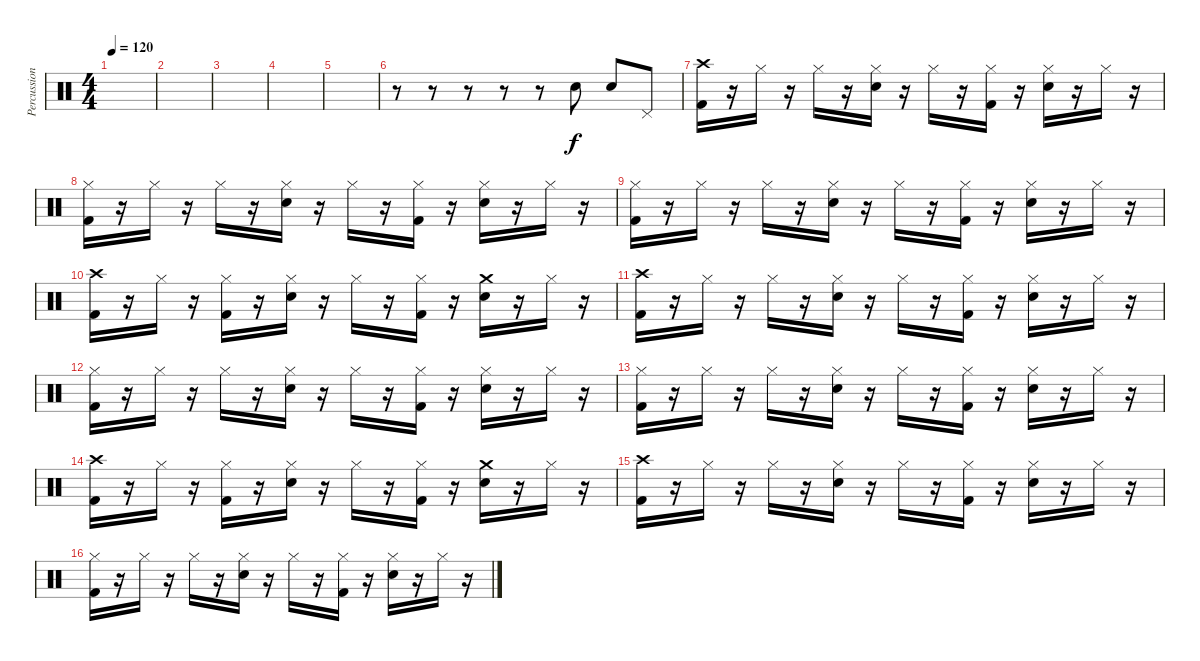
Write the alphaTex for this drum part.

\track ("Percussion" "Percussion") {instrument percussion}
\staff {score}
\articulation defaults
\ts (4 4)
\tempo 120
\clef neutral
\ks c
|
|
|
|
|
r.8 r.8 r.8 r.8 r.8 "Snare (hit) 2".8 "Snare (hit) 2".8 "Pedal Hi-Hat (hit)".8 |
("Crash high (hit)" "Kick (hit) 2").16 r.16 "Hi-Hat (closed)".16 r.16 "Hi-Hat (closed)".16 r.16 ("Hi-Hat (closed)" "Snare (hit) 2").16 r.16 "Hi-Hat (closed)".16 r.16 ("Hi-Hat (closed)" "Kick (hit) 2").16 r.16 ("Hi-Hat (closed)" "Snare (hit) 2").16 r.16 "Hi-Hat (closed)".16 r.16 |
("Hi-Hat (closed)" "Kick (hit) 2").16 r.16 "Hi-Hat (closed)".16 r.16 "Hi-Hat (closed)".16 r.16 ("Hi-Hat (closed)" "Snare (hit) 2").16 r.16 "Hi-Hat (closed)".16 r.16 ("Hi-Hat (closed)" "Kick (hit) 2").16 r.16 ("Hi-Hat (closed)" "Snare (hit) 2").16 r.16 "Hi-Hat (closed)".16 r.16 |
("Hi-Hat (closed)" "Kick (hit) 2").16 r.16 "Hi-Hat (closed)".16 r.16 "Hi-Hat (closed)".16 r.16 ("Hi-Hat (closed)" "Snare (hit) 2").16 r.16 "Hi-Hat (closed)".16 r.16 ("Hi-Hat (closed)" "Kick (hit) 2").16 r.16 ("Hi-Hat (closed)" "Snare (hit) 2").16 r.16 "Hi-Hat (closed)".16 r.16 |
("Crash high (hit)" "Kick (hit) 2").16 r.16 "Hi-Hat (closed)".16 r.16 ("Hi-Hat (closed)" "Kick (hit) 2").16 r.16 ("Hi-Hat (closed)" "Snare (hit) 2").16 r.16 "Hi-Hat (closed)".16 r.16 ("Hi-Hat (closed)" "Kick (hit) 2").16 r.16 ("Crash medium (hit)" "Snare (hit) 2").16 r.16 "Hi-Hat (closed)".16 r.16 |
("Crash high (hit)" "Kick (hit) 2").16 r.16 "Hi-Hat (closed)".16 r.16 "Hi-Hat (closed)".16 r.16 ("Hi-Hat (closed)" "Snare (hit) 2").16 r.16 "Hi-Hat (closed)".16 r.16 ("Hi-Hat (closed)" "Kick (hit) 2").16 r.16 ("Hi-Hat (closed)" "Snare (hit) 2").16 r.16 "Hi-Hat (closed)".16 r.16 |
("Hi-Hat (closed)" "Kick (hit) 2").16 r.16 "Hi-Hat (closed)".16 r.16 "Hi-Hat (closed)".16 r.16 ("Hi-Hat (closed)" "Snare (hit) 2").16 r.16 "Hi-Hat (closed)".16 r.16 ("Hi-Hat (closed)" "Kick (hit) 2").16 r.16 ("Hi-Hat (closed)" "Snare (hit) 2").16 r.16 "Hi-Hat (closed)".16 r.16 |
("Hi-Hat (closed)" "Kick (hit) 2").16 r.16 "Hi-Hat (closed)".16 r.16 "Hi-Hat (closed)".16 r.16 ("Hi-Hat (closed)" "Snare (hit) 2").16 r.16 "Hi-Hat (closed)".16 r.16 ("Hi-Hat (closed)" "Kick (hit) 2").16 r.16 ("Hi-Hat (closed)" "Snare (hit) 2").16 r.16 "Hi-Hat (closed)".16 r.16 |
("Crash high (hit)" "Kick (hit) 2").16 r.16 "Hi-Hat (closed)".16 r.16 ("Hi-Hat (closed)" "Kick (hit) 2").16 r.16 ("Hi-Hat (closed)" "Snare (hit) 2").16 r.16 "Hi-Hat (closed)".16 r.16 ("Hi-Hat (closed)" "Kick (hit) 2").16 r.16 ("Crash medium (hit)" "Snare (hit) 2").16 r.16 "Hi-Hat (closed)".16 r.16 |
("Crash high (hit)" "Kick (hit) 2").16 r.16 "Hi-Hat (closed)".16 r.16 "Hi-Hat (closed)".16 r.16 ("Hi-Hat (closed)" "Snare (hit) 2").16 r.16 "Hi-Hat (closed)".16 r.16 ("Hi-Hat (closed)" "Kick (hit) 2").16 r.16 ("Hi-Hat (closed)" "Snare (hit) 2").16 r.16 "Hi-Hat (closed)".16 r.16 |
("Hi-Hat (closed)" "Kick (hit) 2").16 r.16 "Hi-Hat (closed)".16 r.16 "Hi-Hat (closed)".16 r.16 ("Hi-Hat (closed)" "Snare (hit) 2").16 r.16 "Hi-Hat (closed)".16 r.16 ("Hi-Hat (closed)" "Kick (hit) 2").16 r.16 ("Hi-Hat (closed)" "Snare (hit) 2").16 r.16 "Hi-Hat (closed)".16 r.16
